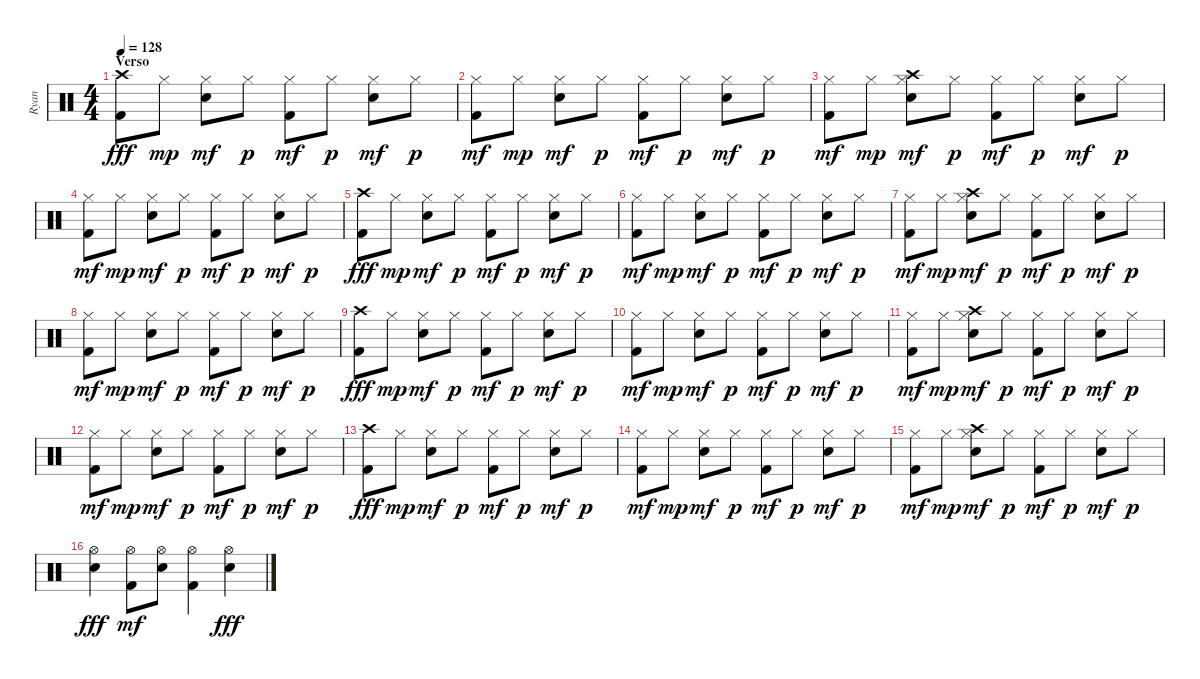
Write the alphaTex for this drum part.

\track ("Ryan" "Ryan") {instrument percussion}
\staff {score}
\articulation defaults
\ts (4 4)
\section ("" "Verso")
\tempo 128
\clef neutral
\ks c
("Kick (hit) 2" "Crash high (hit)").8{dy fff} "Hi-Hat (closed)".8{dy mp} ("Snare (hit) 2" "Hi-Hat (closed)").8{dy mf} "Hi-Hat (closed)".8{dy p} ("Kick (hit) 2" "Hi-Hat (closed)").8{dy mf} "Hi-Hat (closed)".8{dy p} ("Snare (hit) 2" "Hi-Hat (closed)").8{dy mf} "Hi-Hat (closed)".8{dy p} |
("Kick (hit) 2" "Hi-Hat (closed)").8{dy mf} "Hi-Hat (closed)".8{dy mp} ("Snare (hit) 2" "Hi-Hat (closed)").8{dy mf} "Hi-Hat (closed)".8{dy p} ("Kick (hit) 2" "Hi-Hat (closed)").8{dy mf} "Hi-Hat (closed)".8{dy p} ("Snare (hit) 2" "Hi-Hat (closed)").8{dy mf} "Hi-Hat (closed)".8{dy p} |
("Kick (hit) 2" "Hi-Hat (closed)").8{dy mf} "Hi-Hat (closed)".8{dy mp} ("Snare (hit) 2" "Hi-Hat (closed)" "Crash high (hit)").8{dy mf} "Hi-Hat (closed)".8{dy p} ("Kick (hit) 2" "Hi-Hat (closed)").8{dy mf} "Hi-Hat (closed)".8{dy p} ("Snare (hit) 2" "Hi-Hat (closed)").8{dy mf} "Hi-Hat (closed)".8{dy p} |
("Kick (hit) 2" "Hi-Hat (closed)").8{dy mf} "Hi-Hat (closed)".8{dy mp} ("Snare (hit) 2" "Hi-Hat (closed)").8{dy mf} "Hi-Hat (closed)".8{dy p} ("Kick (hit) 2" "Hi-Hat (closed)").8{dy mf} "Hi-Hat (closed)".8{dy p} ("Snare (hit) 2" "Hi-Hat (closed)").8{dy mf} "Hi-Hat (closed)".8{dy p} |
("Kick (hit) 2" "Crash high (hit)").8{dy fff} "Hi-Hat (closed)".8{dy mp} ("Snare (hit) 2" "Hi-Hat (closed)").8{dy mf} "Hi-Hat (closed)".8{dy p} ("Kick (hit) 2" "Hi-Hat (closed)").8{dy mf} "Hi-Hat (closed)".8{dy p} ("Snare (hit) 2" "Hi-Hat (closed)").8{dy mf} "Hi-Hat (closed)".8{dy p} |
("Kick (hit) 2" "Hi-Hat (closed)").8{dy mf} "Hi-Hat (closed)".8{dy mp} ("Snare (hit) 2" "Hi-Hat (closed)").8{dy mf} "Hi-Hat (closed)".8{dy p} ("Kick (hit) 2" "Hi-Hat (closed)").8{dy mf} "Hi-Hat (closed)".8{dy p} ("Snare (hit) 2" "Hi-Hat (closed)").8{dy mf} "Hi-Hat (closed)".8{dy p} |
("Kick (hit) 2" "Hi-Hat (closed)").8{dy mf} "Hi-Hat (closed)".8{dy mp} ("Snare (hit) 2" "Hi-Hat (closed)" "Crash high (hit)").8{dy mf} "Hi-Hat (closed)".8{dy p} ("Kick (hit) 2" "Hi-Hat (closed)").8{dy mf} "Hi-Hat (closed)".8{dy p} ("Snare (hit) 2" "Hi-Hat (closed)").8{dy mf} "Hi-Hat (closed)".8{dy p} |
("Kick (hit) 2" "Hi-Hat (closed)").8{dy mf} "Hi-Hat (closed)".8{dy mp} ("Snare (hit) 2" "Hi-Hat (closed)").8{dy mf} "Hi-Hat (closed)".8{dy p} ("Kick (hit) 2" "Hi-Hat (closed)").8{dy mf} "Hi-Hat (closed)".8{dy p} ("Snare (hit) 2" "Hi-Hat (closed)").8{dy mf} "Hi-Hat (closed)".8{dy p} |
("Kick (hit) 2" "Crash high (hit)").8{dy fff} "Hi-Hat (closed)".8{dy mp} ("Snare (hit) 2" "Hi-Hat (closed)").8{dy mf} "Hi-Hat (closed)".8{dy p} ("Kick (hit) 2" "Hi-Hat (closed)").8{dy mf} "Hi-Hat (closed)".8{dy p} ("Snare (hit) 2" "Hi-Hat (closed)").8{dy mf} "Hi-Hat (closed)".8{dy p} |
("Kick (hit) 2" "Hi-Hat (closed)").8{dy mf} "Hi-Hat (closed)".8{dy mp} ("Snare (hit) 2" "Hi-Hat (closed)").8{dy mf} "Hi-Hat (closed)".8{dy p} ("Kick (hit) 2" "Hi-Hat (closed)").8{dy mf} "Hi-Hat (closed)".8{dy p} ("Snare (hit) 2" "Hi-Hat (closed)").8{dy mf} "Hi-Hat (closed)".8{dy p} |
("Kick (hit) 2" "Hi-Hat (closed)").8{dy mf} "Hi-Hat (closed)".8{dy mp} ("Snare (hit) 2" "Hi-Hat (closed)" "Crash high (hit)").8{dy mf} "Hi-Hat (closed)".8{dy p} ("Kick (hit) 2" "Hi-Hat (closed)").8{dy mf} "Hi-Hat (closed)".8{dy p} ("Snare (hit) 2" "Hi-Hat (closed)").8{dy mf} "Hi-Hat (closed)".8{dy p} |
("Kick (hit) 2" "Hi-Hat (closed)").8{dy mf} "Hi-Hat (closed)".8{dy mp} ("Snare (hit) 2" "Hi-Hat (closed)").8{dy mf} "Hi-Hat (closed)".8{dy p} ("Kick (hit) 2" "Hi-Hat (closed)").8{dy mf} "Hi-Hat (closed)".8{dy p} ("Snare (hit) 2" "Hi-Hat (closed)").8{dy mf} "Hi-Hat (closed)".8{dy p} |
("Kick (hit) 2" "Crash high (hit)").8{dy fff} "Hi-Hat (closed)".8{dy mp} ("Snare (hit) 2" "Hi-Hat (closed)").8{dy mf} "Hi-Hat (closed)".8{dy p} ("Kick (hit) 2" "Hi-Hat (closed)").8{dy mf} "Hi-Hat (closed)".8{dy p} ("Snare (hit) 2" "Hi-Hat (closed)").8{dy mf} "Hi-Hat (closed)".8{dy p} |
("Kick (hit) 2" "Hi-Hat (closed)").8{dy mf} "Hi-Hat (closed)".8{dy mp} ("Snare (hit) 2" "Hi-Hat (closed)").8{dy mf} "Hi-Hat (closed)".8{dy p} ("Kick (hit) 2" "Hi-Hat (closed)").8{dy mf} "Hi-Hat (closed)".8{dy p} ("Snare (hit) 2" "Hi-Hat (closed)").8{dy mf} "Hi-Hat (closed)".8{dy p} |
("Kick (hit) 2" "Hi-Hat (closed)").8{dy mf} "Hi-Hat (closed)".8{dy mp} ("Snare (hit) 2" "Hi-Hat (closed)" "Crash high (hit)").8{dy mf} "Hi-Hat (closed)".8{dy p} ("Kick (hit) 2" "Hi-Hat (closed)").8{dy mf} "Hi-Hat (closed)".8{dy p} ("Snare (hit) 2" "Hi-Hat (closed)").8{dy mf} "Hi-Hat (closed)".8{dy p} |
("Hi-Hat (open)" "Snare (hit) 2").4{dy fff} ("Kick (hit) 2" "Hi-Hat (open)").8{dy mf} ("Snare (hit) 2" "Hi-Hat (open)").8 ("Kick (hit) 2" "Hi-Hat (open)").4 ("Hi-Hat (open)" "Snare (hit) 2").4{dy fff}
